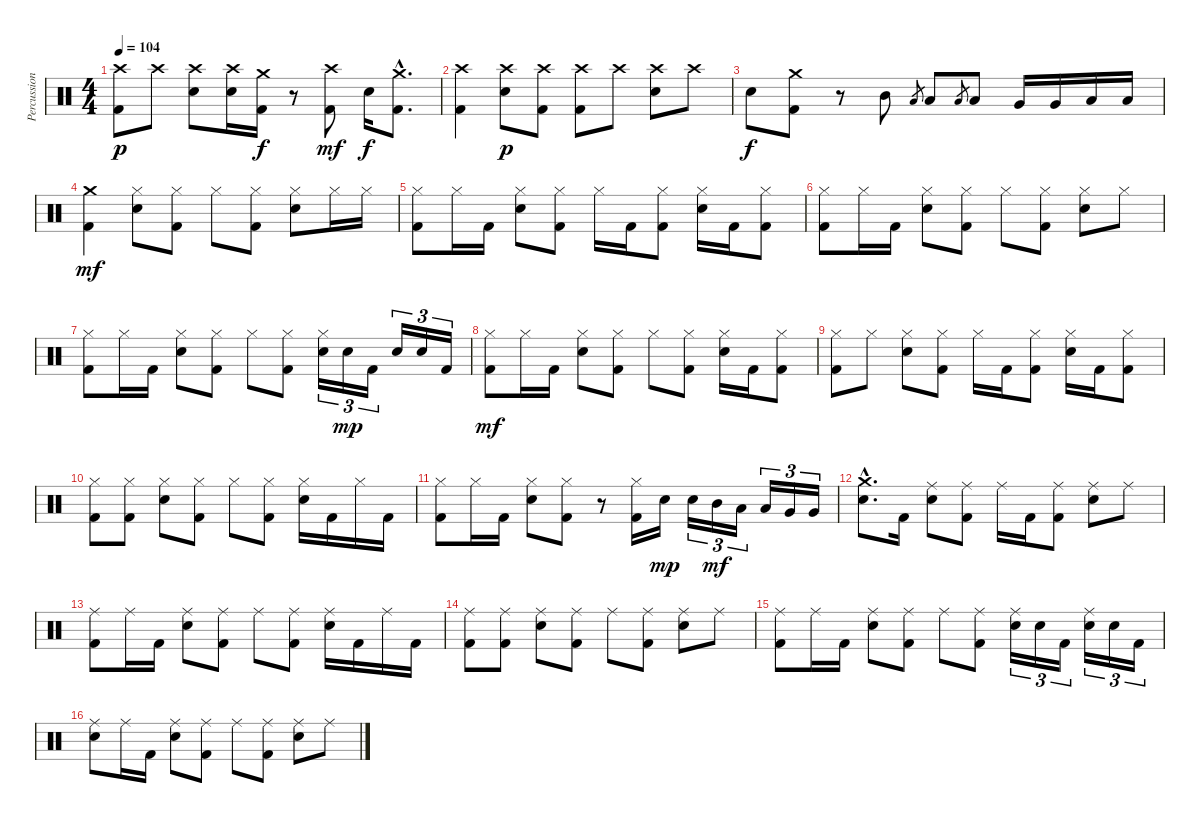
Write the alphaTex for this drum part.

\track ("Percussion" "Percussion") {instrument percussion}
\staff {score}
\articulation defaults
\ts (4 4)
\tempo 104
\clef neutral
\ks c
("Kick (hit) 2" "Crash high (hit)").8{dy p} "Crash high (hit)".8 ("Electric Snare (hit)" "Crash high (hit)").8 ("Electric Snare (hit)" "Crash high (hit)").16 ("Kick (hit) 2" "Crash medium (hit)").16{dy f} r.8 ("Kick (hit) 2" "Crash high (hit)").8{dy mf} "Electric Snare (hit)".16{dy f} ("Kick (hit) 2"{hac} "Crash medium (hit)"{hac}).8{d} |
("Kick (hit) 2" "Crash high (hit)").4 ("Electric Snare (hit)" "Crash high (hit)").8{dy p} ("Kick (hit) 2" "Crash high (hit)").8 ("Kick (hit) 2" "Crash high (hit)").8 "Crash high (hit)".8 ("Electric Snare (hit)" "Crash high (hit)").8 "Crash high (hit)".8 |
"Electric Snare (hit)".8{dy f} ("Kick (hit) 2" "Crash medium (hit)").8 r.8 "Mid Tom (hit)".8 "Low Tom (hit)".8{gr} "Low Tom (hit)".8 "Low Tom (hit)".8{gr} "Low Tom (hit)".8 "Very Low Tom (hit)".16 "Very Low Tom (hit)".16 "Low Floor Tom (hit)".16 "Low Floor Tom (hit)".16 |
("Kick (hit) 2" "Crash medium (hit)").4{dy mf} ("Electric Snare (hit)" "Hi-Hat (closed)").8 ("Kick (hit) 2" "Hi-Hat (closed)").8 "Hi-Hat (closed)".8 ("Kick (hit) 2" "Hi-Hat (closed)").8 ("Electric Snare (hit)" "Hi-Hat (closed)").8 "Hi-Hat (closed)".16 "Hi-Hat (closed)".16 |
("Kick (hit) 2" "Hi-Hat (closed)").8 "Hi-Hat (closed)".16 "Kick (hit) 2".16 ("Electric Snare (hit)" "Hi-Hat (closed)").8 ("Kick (hit) 2" "Hi-Hat (closed)").8 "Hi-Hat (closed)".16 "Kick (hit) 2".16 ("Kick (hit) 2" "Hi-Hat (closed)").8 ("Electric Snare (hit)" "Hi-Hat (closed)").16 "Kick (hit) 2".16 ("Kick (hit) 2" "Hi-Hat (closed)").8 |
("Kick (hit) 2" "Hi-Hat (closed)").8 "Hi-Hat (closed)".16 "Kick (hit) 2".16 ("Electric Snare (hit)" "Hi-Hat (closed)").8 ("Kick (hit) 2" "Hi-Hat (closed)").8 "Hi-Hat (closed)".8 ("Kick (hit) 2" "Hi-Hat (closed)").8 ("Electric Snare (hit)" "Hi-Hat (closed)").8 "Hi-Hat (closed)".8 |
("Kick (hit) 2" "Hi-Hat (closed)").8 "Hi-Hat (closed)".16 "Kick (hit) 2".16 ("Electric Snare (hit)" "Hi-Hat (closed)").8 ("Kick (hit) 2" "Hi-Hat (closed)").8 "Hi-Hat (closed)".8 ("Kick (hit) 2" "Hi-Hat (closed)").8 ("Electric Snare (hit)" "Hi-Hat (closed)").16{tu (3 2)} "Electric Snare (hit)".16{tu (3 2) dy mp} "Kick (hit) 2".16{tu (3 2)} "Electric Snare (hit)".16{tu (3 2)} "Electric Snare (hit)".16{tu (3 2)} "Kick (hit) 2".16{tu (3 2)} |
("Kick (hit) 2" "Hi-Hat (closed)").8{dy mf} "Hi-Hat (closed)".16 "Kick (hit) 2".16 ("Electric Snare (hit)" "Hi-Hat (closed)").8 ("Kick (hit) 2" "Hi-Hat (closed)").8 "Hi-Hat (closed)".8 ("Kick (hit) 2" "Hi-Hat (closed)").8 ("Electric Snare (hit)" "Hi-Hat (closed)").16 "Kick (hit) 2".16 ("Kick (hit) 2" "Hi-Hat (closed)").8 |
("Kick (hit) 2" "Hi-Hat (closed)").8 "Hi-Hat (closed)".8 ("Electric Snare (hit)" "Hi-Hat (closed)").8 ("Kick (hit) 2" "Hi-Hat (closed)").8 "Hi-Hat (closed)".16 "Kick (hit) 2".16 ("Kick (hit) 2" "Hi-Hat (closed)").8 ("Electric Snare (hit)" "Hi-Hat (closed)").16 "Kick (hit) 2".16 ("Kick (hit) 2" "Hi-Hat (closed)").8 |
("Kick (hit) 2" "Hi-Hat (closed)").8 ("Kick (hit) 2" "Hi-Hat (closed)").8 ("Electric Snare (hit)" "Hi-Hat (closed)").8 ("Kick (hit) 2" "Hi-Hat (closed)").8 "Hi-Hat (closed)".8 ("Kick (hit) 2" "Hi-Hat (closed)").8 ("Electric Snare (hit)" "Hi-Hat (closed)").16 "Kick (hit) 2".16 "Hi-Hat (closed)".16 "Kick (hit) 2".16 |
("Kick (hit) 2" "Hi-Hat (closed)").8 "Hi-Hat (closed)".16 "Kick (hit) 2".16 ("Electric Snare (hit)" "Hi-Hat (closed)").8 ("Kick (hit) 2" "Hi-Hat (closed)").8 r.8 ("Kick (hit) 2" "Hi-Hat (closed)").16 "Electric Snare (hit)".16{dy mp} "Electric Snare (hit)".16{tu (3 2)} "Mid Tom (hit)".16{tu (3 2) dy mf} "Low Tom (hit)".16{tu (3 2)} "Low Tom (hit)".16{tu (3 2)} "Very Low Tom (hit)".16{tu (3 2)} "Very Low Tom (hit)".16{tu (3 2)} |
("Electric Snare (hit)"{hac} "Crash medium (hit)"{hac}).8{d} "Kick (hit) 2".16 ("Electric Snare (hit)" "Ride (middle)").8 ("Kick (hit) 2" "Ride (middle)").8 "Ride (middle)".16 "Kick (hit) 2".16 ("Kick (hit) 2" "Ride (middle)").8 ("Electric Snare (hit)" "Ride (middle)").8 "Ride (middle)".8 |
("Kick (hit) 2" "Ride (middle)").8 "Ride (middle)".16 "Kick (hit) 2".16 ("Electric Snare (hit)" "Ride (middle)").8 ("Kick (hit) 2" "Ride (middle)").8 "Ride (middle)".8 ("Kick (hit) 2" "Ride (middle)").8 ("Electric Snare (hit)" "Ride (middle)").16 "Kick (hit) 2".16 "Ride (middle)".16 "Kick (hit) 2".16 |
("Kick (hit) 2" "Ride (middle)").8 ("Kick (hit) 2" "Ride (middle)").8 ("Electric Snare (hit)" "Ride (middle)").8 ("Kick (hit) 2" "Ride (middle)").8 "Ride (middle)".8 ("Kick (hit) 2" "Ride (middle)").8 ("Electric Snare (hit)" "Ride (middle)").8 "Ride (middle)".8 |
("Kick (hit) 2" "Ride (middle)").8 "Ride (middle)".16 "Kick (hit) 2".16 ("Electric Snare (hit)" "Ride (middle)").8 ("Kick (hit) 2" "Ride (middle)").8 "Ride (middle)".8 ("Kick (hit) 2" "Ride (middle)").8 ("Electric Snare (hit)" "Ride (middle)").16{tu (3 2)} "Electric Snare (hit)".16{tu (3 2)} "Kick (hit) 2".16{tu (3 2)} ("Electric Snare (hit)" "Ride (middle)").16{tu (3 2)} "Electric Snare (hit)".16{tu (3 2)} "Kick (hit) 2".16{tu (3 2)} |
("Electric Snare (hit)" "Ride (middle)").8 "Ride (middle)".16 "Kick (hit) 2".16 ("Electric Snare (hit)" "Ride (middle)").8 ("Kick (hit) 2" "Ride (middle)").8 "Ride (middle)".8 ("Kick (hit) 2" "Ride (middle)").8 ("Electric Snare (hit)" "Ride (middle)").8 "Ride (middle)".8
